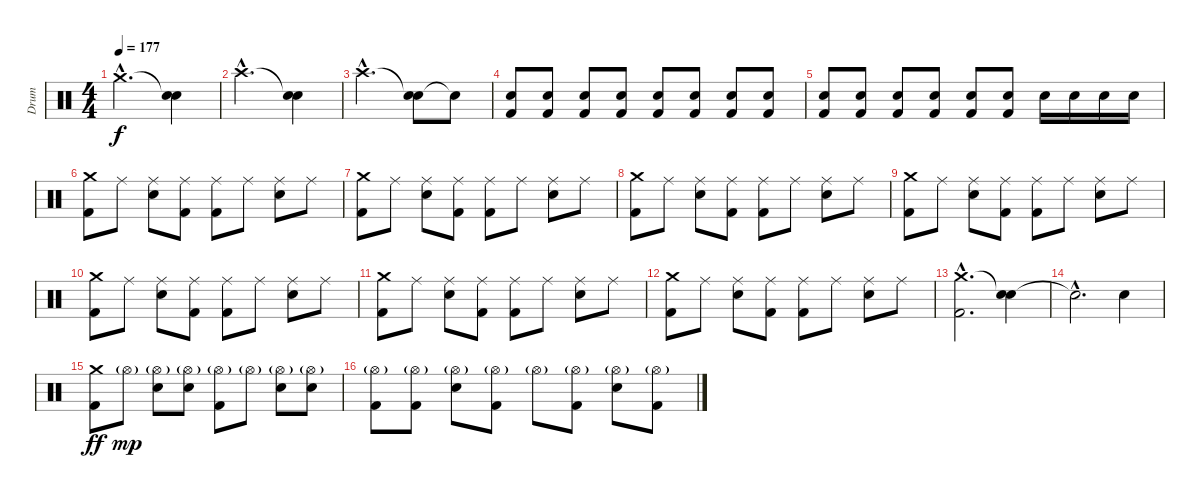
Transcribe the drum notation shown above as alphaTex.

\track ("Drum" "Drum") {instrument percussion}
\staff {score}
\articulation defaults
\ts (4 4)
\tempo 177
\clef neutral
\ks c "Crash medium (hit)"{hac}.2{d dy f}
("Snare (hit)"{t} "Electric Snare (hit)").4 |
"Crash high (hit)"{hac}.2{d} ("Snare (hit)"{t} "Electric Snare (hit)").4 |
"Crash high (hit)"{hac}.2{d} ("Snare (hit)"{t} "Electric Snare (hit)").8 "Snare (hit)"{t}.8{volume 5} |
("Electric Snare (hit)" "Kick (hit) 2").8{volume 16} ("Electric Snare (hit)" "Kick (hit) 2").8 ("Electric Snare (hit)" "Kick (hit) 2").8 ("Electric Snare (hit)" "Kick (hit) 2").8 ("Electric Snare (hit)" "Kick (hit) 2").8 ("Electric Snare (hit)" "Kick (hit) 2").8 ("Electric Snare (hit)" "Kick (hit) 2").8 ("Electric Snare (hit)" "Kick (hit) 2").8 |
("Electric Snare (hit)" "Kick (hit) 2").8 ("Electric Snare (hit)" "Kick (hit) 2").8 ("Electric Snare (hit)" "Kick (hit) 2").8 ("Electric Snare (hit)" "Kick (hit) 2").8 ("Electric Snare (hit)" "Kick (hit) 2").8 ("Electric Snare (hit)" "Kick (hit) 2").8 "Electric Snare (hit)".16 "Electric Snare (hit)".16 "Electric Snare (hit)".16 "Electric Snare (hit)".16 |
("Crash medium (hit)" "Kick (hit) 2").8{volume 16} "Ride (middle)".8 ("Ride (middle)" "Electric Snare (hit)").8 ("Ride (middle)" "Kick (hit) 2").8 ("Ride (middle)" "Kick (hit) 2").8 "Ride (middle)".8 ("Ride (middle)" "Electric Snare (hit)").8 "Ride (middle)".8 |
("Crash medium (hit)" "Kick (hit) 2").8 "Ride (middle)".8 ("Ride (middle)" "Electric Snare (hit)").8 ("Ride (middle)" "Kick (hit) 2").8 ("Ride (middle)" "Kick (hit) 2").8 "Ride (middle)".8 ("Ride (middle)" "Electric Snare (hit)").8 "Ride (middle)".8 |
("Crash medium (hit)" "Kick (hit) 2").8 "Ride (middle)".8 ("Ride (middle)" "Electric Snare (hit)").8 ("Ride (middle)" "Kick (hit) 2").8 ("Ride (middle)" "Kick (hit) 2").8 "Ride (middle)".8 ("Ride (middle)" "Electric Snare (hit)").8 "Ride (middle)".8 |
("Crash medium (hit)" "Kick (hit) 2").8 "Ride (middle)".8 ("Ride (middle)" "Electric Snare (hit)").8 ("Ride (middle)" "Kick (hit) 2").8 ("Ride (middle)" "Kick (hit) 2").8 "Ride (middle)".8 ("Ride (middle)" "Electric Snare (hit)").8 "Ride (middle)".8 |
("Crash medium (hit)" "Kick (hit) 2").8 "Ride (middle)".8 ("Ride (middle)" "Electric Snare (hit)").8 ("Ride (middle)" "Kick (hit) 2").8 ("Ride (middle)" "Kick (hit) 2").8 "Ride (middle)".8 ("Ride (middle)" "Electric Snare (hit)").8 "Ride (middle)".8 |
("Crash medium (hit)" "Kick (hit) 2").8 "Ride (middle)".8 ("Ride (middle)" "Electric Snare (hit)").8 ("Ride (middle)" "Kick (hit) 2").8 ("Ride (middle)" "Kick (hit) 2").8 "Ride (middle)".8 ("Ride (middle)" "Electric Snare (hit)").8 "Ride (middle)".8 |
("Crash medium (hit)" "Kick (hit) 2").8 "Ride (middle)".8 ("Ride (middle)" "Electric Snare (hit)").8 ("Ride (middle)" "Kick (hit) 2").8 ("Ride (middle)" "Kick (hit) 2").8 "Ride (middle)".8 ("Ride (middle)" "Electric Snare (hit)").8 "Ride (middle)".8 |
("Crash medium (hit)"{hac} "Kick (hit) 2"{hac}).2{d} ("Snare (hit)"{t} "Electric Snare (hit)").4 |
"Snare (hit)"{hac t}.2{d} "Electric Snare (hit)".4 |
("Crash medium (hit)" "Kick (hit) 2").8{dy ff} "Hi-Hat (open)"{g}.8{dy mp} ("Hi-Hat (open)"{g} "Electric Snare (hit)").8 ("Hi-Hat (open)"{g} "Electric Snare (hit)").8 ("Hi-Hat (open)"{g} "Kick (hit) 2").8 "Hi-Hat (open)"{g}.8 ("Hi-Hat (open)"{g} "Electric Snare (hit)").8 ("Hi-Hat (open)"{g} "Electric Snare (hit)").8 |
("Hi-Hat (open)"{g} "Kick (hit) 2").8 ("Hi-Hat (open)"{g} "Kick (hit) 2").8 ("Hi-Hat (open)"{g} "Electric Snare (hit)").8 ("Hi-Hat (open)"{g} "Kick (hit) 2").8 "Hi-Hat (open)"{g}.8 ("Hi-Hat (open)"{g} "Kick (hit) 2").8 ("Hi-Hat (open)"{g} "Electric Snare (hit)").8 ("Hi-Hat (open)"{g} "Kick (hit) 2").8
